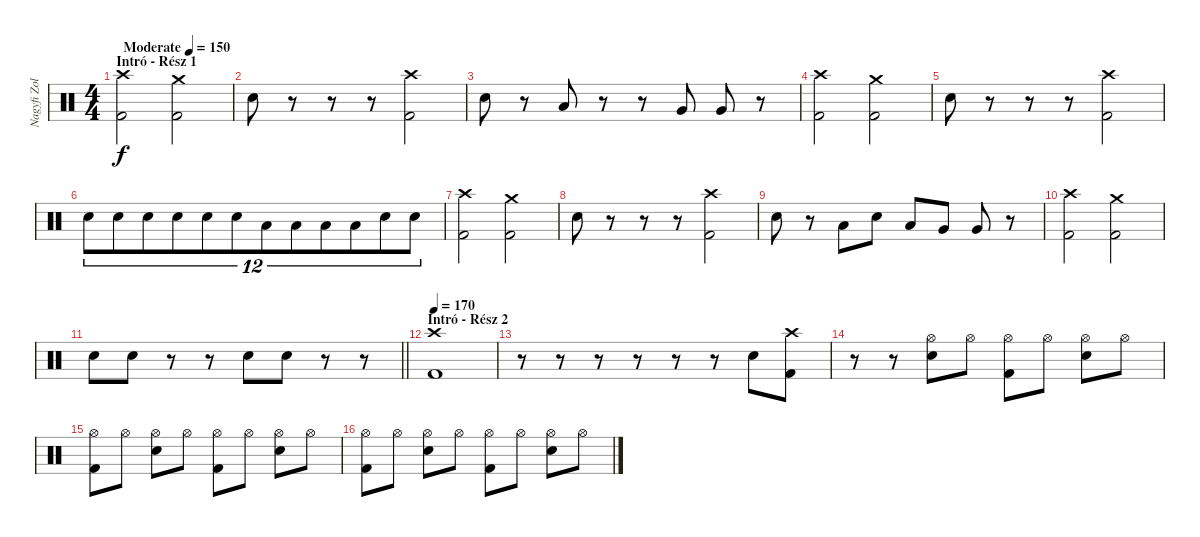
\track ("Nagyfi Zoltán - Dob" "Nagyfi Zol") {instrument percussion}
\staff {score}
\articulation defaults
\ts (4 4)
\section ("" "Intró - Rész 1")
\tempo (150 "Moderate")
\clef neutral
\ks c
("Crash high (hit)" "Kick (hit) 2").2{dy f} ("Crash medium (hit)" "Kick (hit) 2").2 |
"Electric Snare (hit)".8 r.8 r.8 r.8 ("Crash high (hit)" "Kick (hit) 2").2 |
"Electric Snare (hit)".8 r.8 "Low Tom (hit)".8 r.8 r.8 "Very Low Tom (hit)".8 "Very Low Tom (hit)".8 r.8 |
("Crash high (hit)" "Kick (hit) 2").2 ("Crash medium (hit)" "Kick (hit) 2").2 |
"Electric Snare (hit)".8 r.8 r.8 r.8 ("Crash high (hit)" "Kick (hit) 2").2 |
"Electric Snare (hit)".8{tu (12 8)} "Electric Snare (hit)".8{tu (12 8)} "Electric Snare (hit)".8{tu (12 8)} "Electric Snare (hit)".8{tu (12 8)} "Electric Snare (hit)".8{tu (12 8)} "Electric Snare (hit)".8{tu (12 8)} "Low Tom (hit)".8{tu (12 8)} "Low Tom (hit)".8{tu (12 8)} "Low Tom (hit)".8{tu (12 8)} "Low Tom (hit)".8{tu (12 8)} "Electric Snare (hit)".8{tu (12 8)} "Electric Snare (hit)".8{tu (12 8)} |
("Crash high (hit)" "Kick (hit) 2").2 ("Crash medium (hit)" "Kick (hit) 2").2 |
"Electric Snare (hit)".8 r.8 r.8 r.8 ("Crash high (hit)" "Kick (hit) 2").2 |
"Electric Snare (hit)".8 r.8 "Low Tom (hit)".8 "Snare (hit)".8 "Low Tom (hit)".8 "Very Low Tom (hit)".8 "Very Low Tom (hit)".8 r.8 |
("Crash high (hit)" "Kick (hit) 2").2 ("Crash medium (hit)" "Kick (hit) 2").2 |
\barLineRight lightlight "Electric Snare (hit)".8 "Electric Snare (hit)".8
r.8 r.8 "Electric Snare (hit)".8 "Electric Snare (hit)".8 r.8 r.8 |
\section ("" "Intró - Rész 2")
\tempo 170
("Crash high (hit)" "Kick (hit) 2").1 |
r.8 r.8 r.8 r.8 r.8 r.8 "Electric Snare (hit)".8 ("Crash high (hit)" "Kick (hit) 2").8 |
r.8 r.8 ("Hi-Hat (open)" "Electric Snare (hit)").8 "Hi-Hat (open)".8 ("Hi-Hat (open)" "Kick (hit) 2").8 "Hi-Hat (open)".8 ("Hi-Hat (open)" "Electric Snare (hit)").8 "Hi-Hat (open)".8 |
("Hi-Hat (open)" "Kick (hit) 2").8 "Hi-Hat (open)".8 ("Hi-Hat (open)" "Electric Snare (hit)").8 "Hi-Hat (open)".8 ("Hi-Hat (open)" "Kick (hit) 2").8 "Hi-Hat (open)".8 ("Hi-Hat (open)" "Electric Snare (hit)").8 "Hi-Hat (open)".8 |
("Hi-Hat (open)" "Kick (hit) 2").8 "Hi-Hat (open)".8 ("Hi-Hat (open)" "Electric Snare (hit)").8 "Hi-Hat (open)".8 ("Hi-Hat (open)" "Kick (hit) 2").8 "Hi-Hat (open)".8 ("Hi-Hat (open)" "Electric Snare (hit)").8 "Hi-Hat (open)".8
